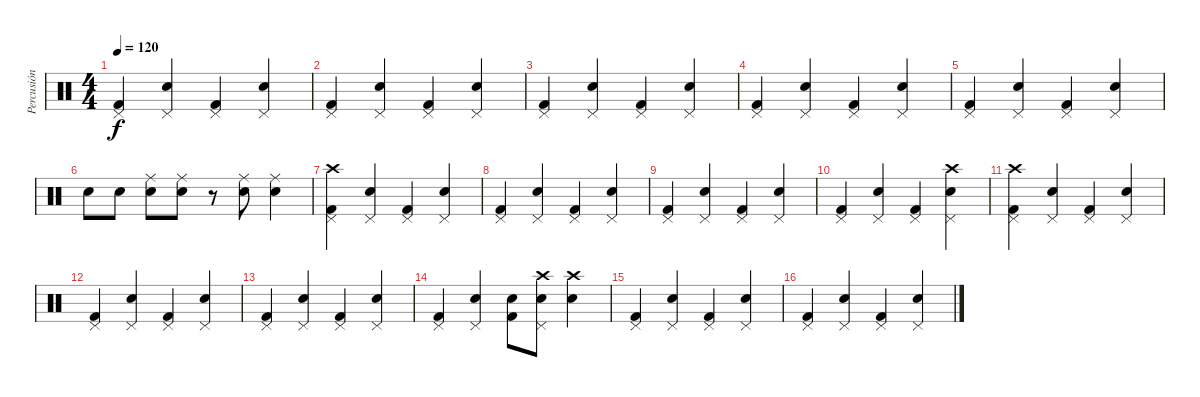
\track ("Percusión" "Percusión") {instrument percussion}
\staff {score}
\articulation defaults
\ts (4 4)
\tempo 120
\clef neutral
\ks c
("Pedal Hi-Hat (hit)" "Kick (hit) 2").4{dy f} ("Pedal Hi-Hat (hit)" "Electric Snare (hit)").4 ("Pedal Hi-Hat (hit)" "Kick (hit) 2").4 ("Pedal Hi-Hat (hit)" "Electric Snare (hit)").4 |
("Pedal Hi-Hat (hit)" "Kick (hit) 2").4 ("Pedal Hi-Hat (hit)" "Electric Snare (hit)").4 ("Pedal Hi-Hat (hit)" "Kick (hit) 2").4 ("Pedal Hi-Hat (hit)" "Electric Snare (hit)").4 |
("Pedal Hi-Hat (hit)" "Kick (hit) 2").4 ("Pedal Hi-Hat (hit)" "Electric Snare (hit)").4 ("Pedal Hi-Hat (hit)" "Kick (hit) 2").4 ("Pedal Hi-Hat (hit)" "Electric Snare (hit)").4 |
("Pedal Hi-Hat (hit)" "Kick (hit) 2").4 ("Pedal Hi-Hat (hit)" "Electric Snare (hit)").4 ("Pedal Hi-Hat (hit)" "Kick (hit) 2").4 ("Pedal Hi-Hat (hit)" "Electric Snare (hit)").4 |
("Pedal Hi-Hat (hit)" "Kick (hit) 2").4 ("Pedal Hi-Hat (hit)" "Electric Snare (hit)").4 ("Pedal Hi-Hat (hit)" "Kick (hit) 2").4 ("Pedal Hi-Hat (hit)" "Electric Snare (hit)").4 |
"Electric Snare (hit)".8 "Electric Snare (hit)".8 ("Electric Snare (hit)" "Ride (middle)").8 ("Electric Snare (hit)" "Ride (middle)").8 r.8 ("Ride (middle)" "Electric Snare (hit)").8 ("Ride (middle)" "Electric Snare (hit)").4 |
("Crash high (hit)" "Pedal Hi-Hat (hit)" "Kick (hit) 2").4 ("Pedal Hi-Hat (hit)" "Electric Snare (hit)").4 ("Pedal Hi-Hat (hit)" "Kick (hit) 2").4 ("Pedal Hi-Hat (hit)" "Electric Snare (hit)").4 |
("Pedal Hi-Hat (hit)" "Kick (hit) 2").4 ("Pedal Hi-Hat (hit)" "Electric Snare (hit)").4 ("Pedal Hi-Hat (hit)" "Kick (hit) 2").4 ("Pedal Hi-Hat (hit)" "Electric Snare (hit)").4 |
("Pedal Hi-Hat (hit)" "Kick (hit) 2").4 ("Pedal Hi-Hat (hit)" "Electric Snare (hit)").4 ("Pedal Hi-Hat (hit)" "Kick (hit) 2").4 ("Pedal Hi-Hat (hit)" "Electric Snare (hit)").4 |
("Pedal Hi-Hat (hit)" "Kick (hit) 2").4 ("Pedal Hi-Hat (hit)" "Electric Snare (hit)").4 ("Pedal Hi-Hat (hit)" "Kick (hit) 2").4 ("Crash high (hit)" "Pedal Hi-Hat (hit)" "Electric Snare (hit)").4 |
("Crash high (hit)" "Pedal Hi-Hat (hit)" "Kick (hit) 2").4 ("Pedal Hi-Hat (hit)" "Electric Snare (hit)").4 ("Pedal Hi-Hat (hit)" "Kick (hit) 2").4 ("Pedal Hi-Hat (hit)" "Electric Snare (hit)").4 |
("Pedal Hi-Hat (hit)" "Kick (hit) 2").4 ("Pedal Hi-Hat (hit)" "Electric Snare (hit)").4 ("Pedal Hi-Hat (hit)" "Kick (hit) 2").4 ("Pedal Hi-Hat (hit)" "Electric Snare (hit)").4 |
("Pedal Hi-Hat (hit)" "Kick (hit) 2").4 ("Pedal Hi-Hat (hit)" "Electric Snare (hit)").4 ("Pedal Hi-Hat (hit)" "Kick (hit) 2").4 ("Pedal Hi-Hat (hit)" "Electric Snare (hit)").4 |
("Pedal Hi-Hat (hit)" "Kick (hit) 2").4 ("Pedal Hi-Hat (hit)" "Electric Snare (hit)").4 ("Electric Snare (hit)" "Kick (hit) 2").8 ("Crash high (hit)" "Pedal Hi-Hat (hit)" "Electric Snare (hit)").8 ("Crash high (hit)" "Electric Snare (hit)").4 |
("Pedal Hi-Hat (hit)" "Kick (hit) 2").4 ("Pedal Hi-Hat (hit)" "Electric Snare (hit)").4 ("Pedal Hi-Hat (hit)" "Kick (hit) 2").4 ("Pedal Hi-Hat (hit)" "Electric Snare (hit)").4 |
("Pedal Hi-Hat (hit)" "Kick (hit) 2").4 ("Pedal Hi-Hat (hit)" "Electric Snare (hit)").4 ("Pedal Hi-Hat (hit)" "Kick (hit) 2").4 ("Pedal Hi-Hat (hit)" "Electric Snare (hit)").4
